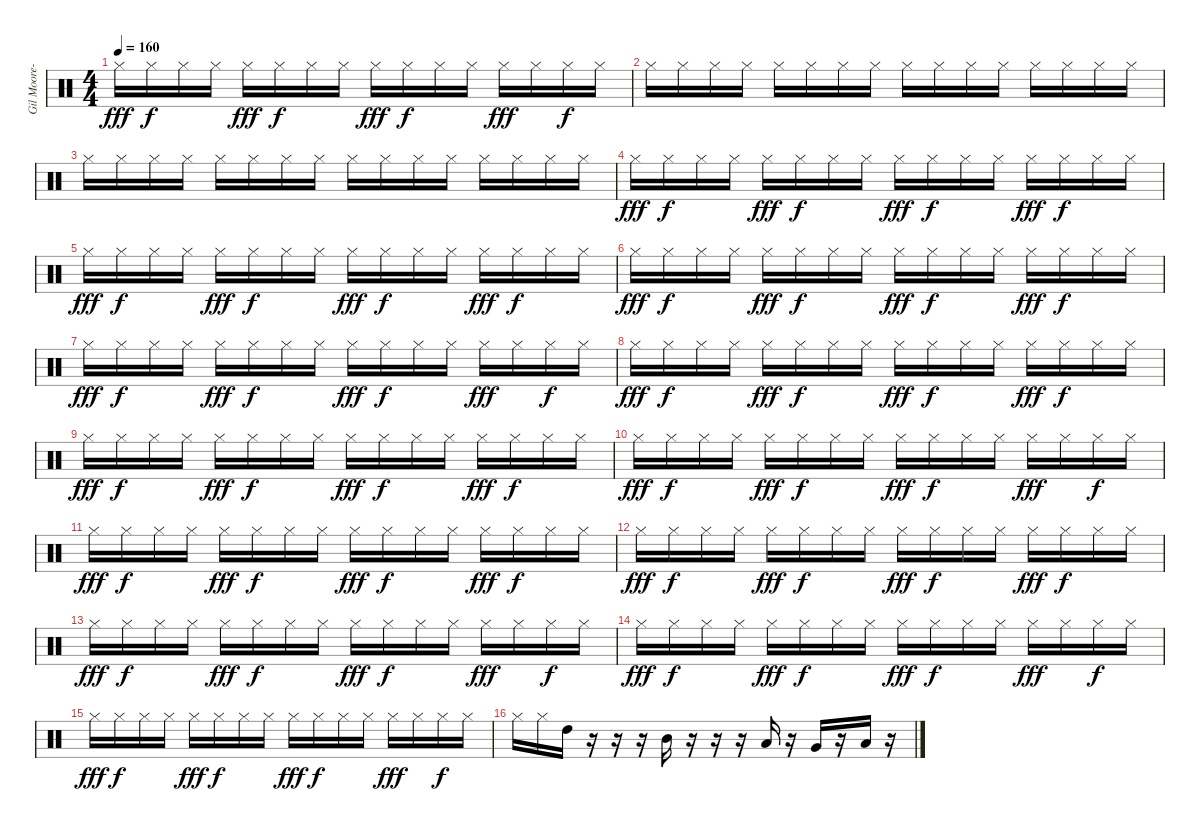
\track ("Gil Moore-Drums n Vocals" "Gil Moore-") {instrument percussion}
\staff {score}
\articulation defaults
\ts (4 4)
\tempo 160
\clef neutral
\ks c "Hi-Hat (closed)".16{dy fff} "Hi-Hat (closed)".16{dy f} "Hi-Hat (closed)".16 "Hi-Hat (closed)".16 "Hi-Hat (closed)".16{dy fff} "Hi-Hat (closed)".16{dy f} "Hi-Hat (closed)".16 "Hi-Hat (closed)".16 "Hi-Hat (closed)".16{dy fff} "Hi-Hat (closed)".16{dy f} "Hi-Hat (closed)".16 "Hi-Hat (closed)".16 "Hi-Hat (closed)".16{dy fff} "Hi-Hat (closed)".16 "Hi-Hat (closed)".16{dy f} "Hi-Hat (closed)".16
|
"Hi-Hat (closed)".16 "Hi-Hat (closed)".16 "Hi-Hat (closed)".16 "Hi-Hat (closed)".16 "Hi-Hat (closed)".16 "Hi-Hat (closed)".16 "Hi-Hat (closed)".16 "Hi-Hat (closed)".16 "Hi-Hat (closed)".16 "Hi-Hat (closed)".16 "Hi-Hat (closed)".16 "Hi-Hat (closed)".16 "Hi-Hat (closed)".16 "Hi-Hat (closed)".16 "Hi-Hat (closed)".16 "Hi-Hat (closed)".16 |
"Hi-Hat (closed)".16 "Hi-Hat (closed)".16 "Hi-Hat (closed)".16 "Hi-Hat (closed)".16 "Hi-Hat (closed)".16 "Hi-Hat (closed)".16 "Hi-Hat (closed)".16 "Hi-Hat (closed)".16 "Hi-Hat (closed)".16 "Hi-Hat (closed)".16 "Hi-Hat (closed)".16 "Hi-Hat (closed)".16 "Hi-Hat (closed)".16 "Hi-Hat (closed)".16 "Hi-Hat (closed)".16 "Hi-Hat (closed)".16 |
"Hi-Hat (closed)".16{dy fff} "Hi-Hat (closed)".16{dy f} "Hi-Hat (closed)".16 "Hi-Hat (closed)".16 "Hi-Hat (closed)".16{dy fff} "Hi-Hat (closed)".16{dy f} "Hi-Hat (closed)".16 "Hi-Hat (closed)".16 "Hi-Hat (closed)".16{dy fff} "Hi-Hat (closed)".16{dy f} "Hi-Hat (closed)".16 "Hi-Hat (closed)".16 "Hi-Hat (closed)".16{dy fff} "Hi-Hat (closed)".16{dy f} "Hi-Hat (closed)".16 "Hi-Hat (closed)".16 |
"Hi-Hat (closed)".16{dy fff} "Hi-Hat (closed)".16{dy f} "Hi-Hat (closed)".16 "Hi-Hat (closed)".16 "Hi-Hat (closed)".16{dy fff} "Hi-Hat (closed)".16{dy f} "Hi-Hat (closed)".16 "Hi-Hat (closed)".16 "Hi-Hat (closed)".16{dy fff} "Hi-Hat (closed)".16{dy f} "Hi-Hat (closed)".16 "Hi-Hat (closed)".16 "Hi-Hat (closed)".16{dy fff} "Hi-Hat (closed)".16{dy f} "Hi-Hat (closed)".16 "Hi-Hat (closed)".16 |
"Hi-Hat (closed)".16{dy fff} "Hi-Hat (closed)".16{dy f} "Hi-Hat (closed)".16 "Hi-Hat (closed)".16 "Hi-Hat (closed)".16{dy fff} "Hi-Hat (closed)".16{dy f} "Hi-Hat (closed)".16 "Hi-Hat (closed)".16 "Hi-Hat (closed)".16{dy fff} "Hi-Hat (closed)".16{dy f} "Hi-Hat (closed)".16 "Hi-Hat (closed)".16 "Hi-Hat (closed)".16{dy fff} "Hi-Hat (closed)".16{dy f} "Hi-Hat (closed)".16 "Hi-Hat (closed)".16 |
"Hi-Hat (closed)".16{dy fff} "Hi-Hat (closed)".16{dy f} "Hi-Hat (closed)".16 "Hi-Hat (closed)".16 "Hi-Hat (closed)".16{dy fff} "Hi-Hat (closed)".16{dy f} "Hi-Hat (closed)".16 "Hi-Hat (closed)".16 "Hi-Hat (closed)".16{dy fff} "Hi-Hat (closed)".16{dy f} "Hi-Hat (closed)".16 "Hi-Hat (closed)".16 "Hi-Hat (closed)".16{dy fff} "Hi-Hat (closed)".16 "Hi-Hat (closed)".16{dy f} "Hi-Hat (closed)".16 |
"Hi-Hat (closed)".16{dy fff} "Hi-Hat (closed)".16{dy f} "Hi-Hat (closed)".16 "Hi-Hat (closed)".16 "Hi-Hat (closed)".16{dy fff} "Hi-Hat (closed)".16{dy f} "Hi-Hat (closed)".16 "Hi-Hat (closed)".16 "Hi-Hat (closed)".16{dy fff} "Hi-Hat (closed)".16{dy f} "Hi-Hat (closed)".16 "Hi-Hat (closed)".16 "Hi-Hat (closed)".16{dy fff} "Hi-Hat (closed)".16{dy f} "Hi-Hat (closed)".16 "Hi-Hat (closed)".16 |
"Hi-Hat (closed)".16{dy fff} "Hi-Hat (closed)".16{dy f} "Hi-Hat (closed)".16 "Hi-Hat (closed)".16 "Hi-Hat (closed)".16{dy fff} "Hi-Hat (closed)".16{dy f} "Hi-Hat (closed)".16 "Hi-Hat (closed)".16 "Hi-Hat (closed)".16{dy fff} "Hi-Hat (closed)".16{dy f} "Hi-Hat (closed)".16 "Hi-Hat (closed)".16 "Hi-Hat (closed)".16{dy fff} "Hi-Hat (closed)".16{dy f} "Hi-Hat (closed)".16 "Hi-Hat (closed)".16 |
"Hi-Hat (closed)".16{dy fff} "Hi-Hat (closed)".16{dy f} "Hi-Hat (closed)".16 "Hi-Hat (closed)".16 "Hi-Hat (closed)".16{dy fff} "Hi-Hat (closed)".16{dy f} "Hi-Hat (closed)".16 "Hi-Hat (closed)".16 "Hi-Hat (closed)".16{dy fff} "Hi-Hat (closed)".16{dy f} "Hi-Hat (closed)".16 "Hi-Hat (closed)".16 "Hi-Hat (closed)".16{dy fff} "Hi-Hat (closed)".16 "Hi-Hat (closed)".16{dy f} "Hi-Hat (closed)".16 |
"Hi-Hat (closed)".16{dy fff} "Hi-Hat (closed)".16{dy f} "Hi-Hat (closed)".16 "Hi-Hat (closed)".16 "Hi-Hat (closed)".16{dy fff} "Hi-Hat (closed)".16{dy f} "Hi-Hat (closed)".16 "Hi-Hat (closed)".16 "Hi-Hat (closed)".16{dy fff} "Hi-Hat (closed)".16{dy f} "Hi-Hat (closed)".16 "Hi-Hat (closed)".16 "Hi-Hat (closed)".16{dy fff} "Hi-Hat (closed)".16{dy f} "Hi-Hat (closed)".16 "Hi-Hat (closed)".16 |
"Hi-Hat (closed)".16{dy fff} "Hi-Hat (closed)".16{dy f} "Hi-Hat (closed)".16 "Hi-Hat (closed)".16 "Hi-Hat (closed)".16{dy fff} "Hi-Hat (closed)".16{dy f} "Hi-Hat (closed)".16 "Hi-Hat (closed)".16 "Hi-Hat (closed)".16{dy fff} "Hi-Hat (closed)".16{dy f} "Hi-Hat (closed)".16 "Hi-Hat (closed)".16 "Hi-Hat (closed)".16{dy fff} "Hi-Hat (closed)".16{dy f} "Hi-Hat (closed)".16 "Hi-Hat (closed)".16 |
"Hi-Hat (closed)".16{dy fff} "Hi-Hat (closed)".16{dy f} "Hi-Hat (closed)".16 "Hi-Hat (closed)".16 "Hi-Hat (closed)".16{dy fff} "Hi-Hat (closed)".16{dy f} "Hi-Hat (closed)".16 "Hi-Hat (closed)".16 "Hi-Hat (closed)".16{dy fff} "Hi-Hat (closed)".16{dy f} "Hi-Hat (closed)".16 "Hi-Hat (closed)".16 "Hi-Hat (closed)".16{dy fff} "Hi-Hat (closed)".16 "Hi-Hat (closed)".16{dy f} "Hi-Hat (closed)".16 |
"Hi-Hat (closed)".16{dy fff} "Hi-Hat (closed)".16{dy f} "Hi-Hat (closed)".16 "Hi-Hat (closed)".16 "Hi-Hat (closed)".16{dy fff} "Hi-Hat (closed)".16{dy f} "Hi-Hat (closed)".16 "Hi-Hat (closed)".16 "Hi-Hat (closed)".16{dy fff} "Hi-Hat (closed)".16{dy f} "Hi-Hat (closed)".16 "Hi-Hat (closed)".16 "Hi-Hat (closed)".16{dy fff} "Hi-Hat (closed)".16 "Hi-Hat (closed)".16{dy f} "Hi-Hat (closed)".16 |
"Hi-Hat (closed)".16{dy fff} "Hi-Hat (closed)".16{dy f} "Hi-Hat (closed)".16 "Hi-Hat (closed)".16 "Hi-Hat (closed)".16{dy fff} "Hi-Hat (closed)".16{dy f} "Hi-Hat (closed)".16 "Hi-Hat (closed)".16 "Hi-Hat (closed)".16{dy fff} "Hi-Hat (closed)".16{dy f} "Hi-Hat (closed)".16 "Hi-Hat (closed)".16 "Hi-Hat (closed)".16{dy fff} "Hi-Hat (closed)".16 "Hi-Hat (closed)".16{dy f} "Hi-Hat (closed)".16 |
"Hi-Hat (closed)".16 "Hi-Hat (closed)".16 "High Tom (hit)".16 r.16 r.16 r.16 "Mid Tom (hit)".16 r.16 r.16 r.16 "Low Tom (hit)".16 r.16 "Very Low Tom (hit)".16 r.16 "Low Floor Tom (hit)".16 r.16
